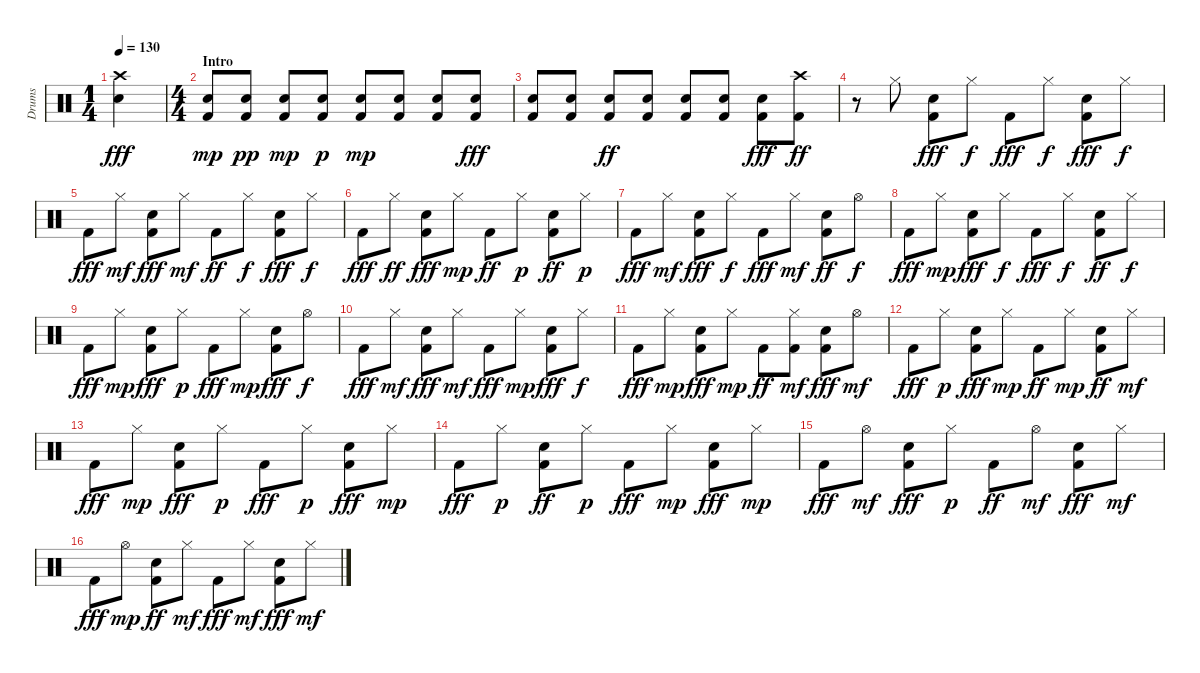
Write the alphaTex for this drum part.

\track ("Drums" "Drums") {instrument percussion}
\staff {score}
\articulation defaults
\ts (1 4)
\tempo 130
\clef neutral
\ks c
("Snare (hit) 2" "Crash high (hit)").4{dy fff} |
\ts (4 4)
\section ("" "Intro")
("Kick (hit) 2" "Snare (hit) 2").8{dy mp} ("Kick (hit) 2" "Snare (hit) 2").8{dy pp} ("Kick (hit) 2" "Snare (hit) 2").8{dy mp} ("Kick (hit) 2" "Snare (hit) 2").8{dy p} ("Kick (hit) 2" "Snare (hit) 2").8{dy mp} ("Kick (hit) 2" "Snare (hit) 2").8 ("Kick (hit) 2" "Snare (hit) 2").8 ("Kick (hit) 2" "Snare (hit) 2").8{dy fff} |
("Kick (hit) 2" "Snare (hit) 2").8 ("Kick (hit) 2" "Snare (hit) 2").8 ("Kick (hit) 2" "Snare (hit) 2").8{dy ff} ("Kick (hit) 2" "Snare (hit) 2").8 ("Kick (hit) 2" "Snare (hit) 2").8 ("Kick (hit) 2" "Snare (hit) 2").8 ("Kick (hit) 2" "Snare (hit) 2").8{dy fff} ("Kick (hit) 2" "Crash high (hit)").8{dy ff} |
r.8 "Hi-Hat (closed)".8 ("Kick (hit) 2" "Snare (hit) 2").8{dy fff} "Hi-Hat (closed)".8{dy f} "Kick (hit) 2".8{dy fff} "Hi-Hat (closed)".8{dy f} ("Kick (hit) 2" "Snare (hit) 2").8{dy fff} "Hi-Hat (closed)".8{dy f} |
"Kick (hit) 2".8{dy fff} "Hi-Hat (closed)".8{dy mf} ("Kick (hit) 2" "Snare (hit) 2").8{dy fff} "Hi-Hat (closed)".8{dy mf} "Kick (hit) 2".8{dy ff} "Hi-Hat (closed)".8{dy f} ("Kick (hit) 2" "Snare (hit) 2").8{dy fff} "Hi-Hat (closed)".8{dy f} |
"Kick (hit) 2".8{dy fff} "Hi-Hat (closed)".8{dy ff} ("Kick (hit) 2" "Snare (hit) 2").8{dy fff} "Hi-Hat (closed)".8{dy mp} "Kick (hit) 2".8{dy ff} "Hi-Hat (closed)".8{dy p} ("Kick (hit) 2" "Snare (hit) 2").8{dy ff} "Hi-Hat (closed)".8{dy p} |
"Kick (hit) 2".8{dy fff} "Hi-Hat (closed)".8{dy mf} ("Kick (hit) 2" "Snare (hit) 2").8{dy fff} "Hi-Hat (closed)".8{dy f} "Kick (hit) 2".8{dy fff} "Hi-Hat (closed)".8{dy mf} ("Kick (hit) 2" "Snare (hit) 2").8{dy ff} "Hi-Hat (open)".8{dy f} |
"Kick (hit) 2".8{dy fff} "Hi-Hat (closed)".8{dy mp} ("Kick (hit) 2" "Snare (hit) 2").8{dy fff} "Hi-Hat (closed)".8{dy f} "Kick (hit) 2".8{dy fff} "Hi-Hat (closed)".8{dy f} ("Kick (hit) 2" "Snare (hit) 2").8{dy ff} "Hi-Hat (closed)".8{dy f} |
"Kick (hit) 2".8{dy fff} "Hi-Hat (closed)".8{dy mp} ("Kick (hit) 2" "Snare (hit) 2").8{dy fff} "Hi-Hat (closed)".8{dy p} "Kick (hit) 2".8{dy fff} "Hi-Hat (closed)".8{dy mp} ("Kick (hit) 2" "Snare (hit) 2").8{dy fff} "Hi-Hat (open)".8{dy f} |
"Kick (hit) 2".8{dy fff} "Hi-Hat (closed)".8{dy mf} ("Kick (hit) 2" "Snare (hit) 2").8{dy fff} "Hi-Hat (closed)".8{dy mf} "Kick (hit) 2".8{dy fff} "Hi-Hat (closed)".8{dy mp} ("Kick (hit) 2" "Snare (hit) 2").8{dy fff} "Hi-Hat (closed)".8{dy f} |
"Kick (hit) 2".8{dy fff} "Hi-Hat (closed)".8{dy mp} ("Kick (hit) 2" "Snare (hit) 2").8{dy fff} "Hi-Hat (closed)".8{dy mp} "Kick (hit) 2".8{dy ff} ("Kick (hit) 2" "Hi-Hat (closed)").8{dy mf} ("Kick (hit) 2" "Snare (hit) 2").8{dy fff} "Hi-Hat (open)".8{dy mf} |
"Kick (hit) 2".8{dy fff} "Hi-Hat (closed)".8{dy p} ("Kick (hit) 2" "Snare (hit) 2").8{dy fff} "Hi-Hat (closed)".8{dy mp} "Kick (hit) 2".8{dy ff} "Hi-Hat (closed)".8{dy mp} ("Kick (hit) 2" "Snare (hit) 2").8{dy ff} "Hi-Hat (closed)".8{dy mf} |
"Kick (hit) 2".8{dy fff} "Hi-Hat (closed)".8{dy mp} ("Kick (hit) 2" "Snare (hit) 2").8{dy fff} "Hi-Hat (closed)".8{dy p} "Kick (hit) 2".8{dy fff} "Hi-Hat (closed)".8{dy p} ("Kick (hit) 2" "Snare (hit) 2").8{dy fff} "Hi-Hat (closed)".8{dy mp} |
"Kick (hit) 2".8{dy fff} "Hi-Hat (closed)".8{dy p} ("Kick (hit) 2" "Snare (hit) 2").8{dy ff} "Hi-Hat (closed)".8{dy p} "Kick (hit) 2".8{dy fff} "Hi-Hat (closed)".8{dy mp} ("Kick (hit) 2" "Snare (hit) 2").8{dy fff} "Hi-Hat (closed)".8{dy mp} |
"Kick (hit) 2".8{dy fff} "Hi-Hat (open)".8{dy mf} ("Kick (hit) 2" "Snare (hit) 2").8{dy fff} "Hi-Hat (closed)".8{dy p} "Kick (hit) 2".8{dy ff} "Hi-Hat (open)".8{dy mf} ("Kick (hit) 2" "Snare (hit) 2").8{dy fff} "Hi-Hat (closed)".8{dy mf} |
"Kick (hit) 2".8{dy fff} "Hi-Hat (open)".8{dy mp} ("Kick (hit) 2" "Snare (hit) 2").8{dy ff} "Hi-Hat (closed)".8{dy mf} "Kick (hit) 2".8{dy fff} "Hi-Hat (closed)".8{dy mf} ("Kick (hit) 2" "Snare (hit) 2").8{dy fff} "Hi-Hat (closed)".8{dy mf}
